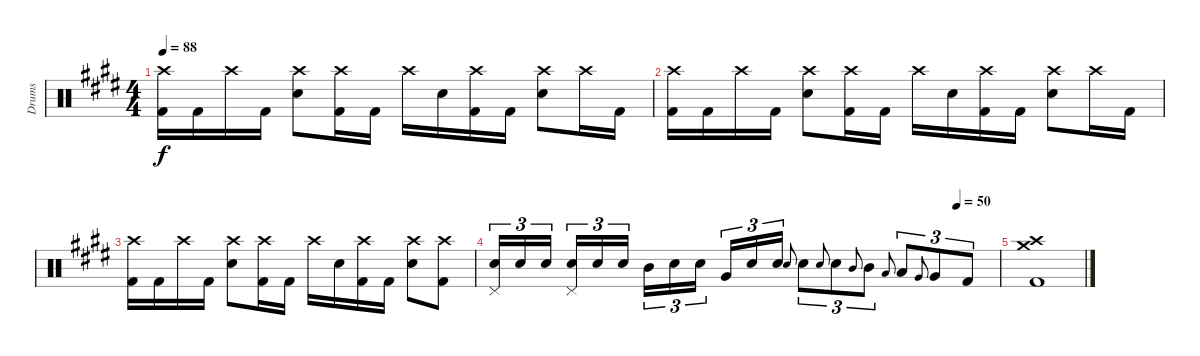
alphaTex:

\track ("Drums" "Drums") {instrument percussion}
\staff {score}
\articulation defaults
\ts (4 4)
\tempo 88
\clef neutral
\ks e
("Crash high (hit)" "Kick (hit) 2").16{dy f} "Kick (hit) 2".16 "Crash high (hit)".16 "Kick (hit) 2".16 ("Crash high (hit)" "Electric Snare (hit)").8 ("Crash high (hit)" "Kick (hit) 2").16 "Kick (hit) 2".16 "Crash high (hit)".16 "Electric Snare (hit)".16 ("Crash high (hit)" "Kick (hit) 2").16 "Kick (hit) 2".16 ("Electric Snare (hit)" "Crash high (hit)").8 "Crash high (hit)".16 "Kick (hit) 2".16 |
("Crash high (hit)" "Kick (hit) 2").16 "Kick (hit) 2".16 "Crash high (hit)".16 "Kick (hit) 2".16 ("Crash high (hit)" "Electric Snare (hit)").8 ("Crash high (hit)" "Kick (hit) 2").16 "Kick (hit) 2".16 "Crash high (hit)".16 "Electric Snare (hit)".16 ("Crash high (hit)" "Kick (hit) 2").16 "Kick (hit) 2".16 ("Electric Snare (hit)" "Crash high (hit)").8 "Crash high (hit)".16 "Kick (hit) 2".16 |
("Crash high (hit)" "Kick (hit) 2").16 "Kick (hit) 2".16 "Crash high (hit)".16 "Kick (hit) 2".16 ("Crash high (hit)" "Electric Snare (hit)").8 ("Crash high (hit)" "Kick (hit) 2").16 "Kick (hit) 2".16 "Crash high (hit)".16 "Electric Snare (hit)".16 ("Crash high (hit)" "Kick (hit) 2").16 "Kick (hit) 2".16 ("Electric Snare (hit)" "Crash high (hit)").8 ("Crash high (hit)" "Kick (hit) 2").8 |
\tempo (50 0.9166666666666666)
("Electric Snare (hit)" "Pedal Hi-Hat (hit)").16{tu (3 2)} "Electric Snare (hit)".16{tu (3 2)} "Electric Snare (hit)".16{tu (3 2) beam splitsecondary} ("Electric Snare (hit)" "Pedal Hi-Hat (hit)").16{tu (3 2)} "Electric Snare (hit)".16{tu (3 2)} "Electric Snare (hit)".16{tu (3 2)} "Mid Tom (hit)".16{tu (3 2)} "Electric Snare (hit)".16{tu (3 2)} "Electric Snare (hit)".16{tu (3 2) beam splitsecondary} "Very Low Tom (hit)".16{tu (3 2)} "Electric Snare (hit)".16{tu (3 2)} "Electric Snare (hit)".16{tu (3 2)} "Electric Snare (hit)".8{gr onbeat} "Electric Snare (hit)".8{tu (3 2)} "Electric Snare (hit)".8{gr onbeat} "Electric Snare (hit)".8{tu (3 2)} "Mid Tom (hit)".8{gr onbeat} "Mid Tom (hit)".8{tu (3 2)} "Low Tom (hit)".8{gr onbeat} "Low Tom (hit)".8{tu (3 2)} "Very Low Tom (hit)".8{gr onbeat} "Very Low Tom (hit)".8{tu (3 2)} "Kick (hit) 2".8{tu (3 2)} |
("Kick (hit) 2" "Crash high (hit)" "Crash medium (hit)").1
